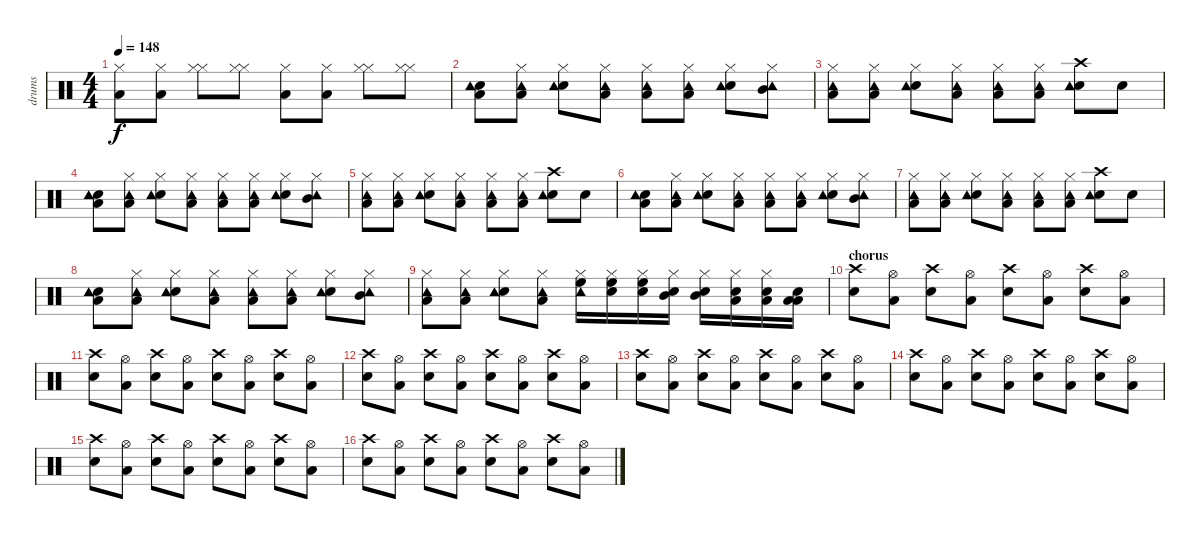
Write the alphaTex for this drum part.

\track ("drums" "drums") {instrument percussion}
\staff {score}
\articulation defaults
\ts (4 4)
\tempo 148
\clef neutral
\ks c
("Hi-Hat (closed)" "Low Tom (hit)").8{dy f} ("Hi-Hat (closed)" "Low Tom (hit)").8 ("Hi-Hat (closed)" "Hi-Hat (closed)").8 ("Hi-Hat (closed)" "Hi-Hat (closed)").8 ("Hi-Hat (closed)" "Low Tom (hit)").8 ("Hi-Hat (closed)" "Low Tom (hit)").8 ("Hi-Hat (closed)" "Hi-Hat (closed)").8 ("Hi-Hat (closed)" "Hi-Hat (closed)").8 |
("Snare (hit) 2" "Low Tom (hit)" "Tambourine (hit)").8 ("Hi-Hat (closed)" "Low Tom (hit)" "Tambourine (hit)").8 ("Snare (hit) 2" "Hi-Hat (closed)" "Tambourine (hit)").8 ("Hi-Hat (closed)" "Low Tom (hit)" "Tambourine (hit)").8 ("Hi-Hat (closed)" "Low Tom (hit)" "Tambourine (hit)").8 ("Hi-Hat (closed)" "Low Tom (hit)" "Tambourine (hit)").8 ("Snare (hit) 2" "Hi-Hat (closed)" "Tambourine (hit)").8 ("Mid Tom (hit)" "Hi-Hat (closed)" "Tambourine (hit)").8 |
("Hi-Hat (closed)" "Low Tom (hit)" "Tambourine (hit)").8 ("Hi-Hat (closed)" "Low Tom (hit)" "Tambourine (hit)").8 ("Snare (hit) 2" "Hi-Hat (closed)" "Tambourine (hit)").8 ("Hi-Hat (closed)" "Low Tom (hit)" "Tambourine (hit)").8 ("Hi-Hat (closed)" "Low Tom (hit)" "Tambourine (hit)").8 ("Hi-Hat (closed)" "Low Tom (hit)" "Tambourine (hit)").8 ("Crash high (hit)" "Snare (hit) 2" "Tambourine (hit)").8 "Snare (hit) 2".8 |
("Snare (hit) 2" "Low Tom (hit)" "Tambourine (hit)").8 ("Hi-Hat (closed)" "Low Tom (hit)" "Tambourine (hit)").8 ("Snare (hit) 2" "Hi-Hat (closed)" "Tambourine (hit)").8 ("Hi-Hat (closed)" "Low Tom (hit)" "Tambourine (hit)").8 ("Hi-Hat (closed)" "Low Tom (hit)" "Tambourine (hit)").8 ("Hi-Hat (closed)" "Low Tom (hit)" "Tambourine (hit)").8 ("Snare (hit) 2" "Hi-Hat (closed)" "Tambourine (hit)").8 ("Mid Tom (hit)" "Hi-Hat (closed)" "Tambourine (hit)").8 |
("Hi-Hat (closed)" "Low Tom (hit)" "Tambourine (hit)").8 ("Hi-Hat (closed)" "Low Tom (hit)" "Tambourine (hit)").8 ("Snare (hit) 2" "Hi-Hat (closed)" "Tambourine (hit)").8 ("Hi-Hat (closed)" "Low Tom (hit)" "Tambourine (hit)").8 ("Hi-Hat (closed)" "Low Tom (hit)" "Tambourine (hit)").8 ("Hi-Hat (closed)" "Low Tom (hit)" "Tambourine (hit)").8 ("Crash high (hit)" "Snare (hit) 2" "Tambourine (hit)").8 "Snare (hit) 2".8 |
("Snare (hit) 2" "Low Tom (hit)" "Tambourine (hit)").8 ("Hi-Hat (closed)" "Low Tom (hit)" "Tambourine (hit)").8 ("Snare (hit) 2" "Hi-Hat (closed)" "Tambourine (hit)").8 ("Hi-Hat (closed)" "Low Tom (hit)" "Tambourine (hit)").8 ("Hi-Hat (closed)" "Low Tom (hit)" "Tambourine (hit)").8 ("Hi-Hat (closed)" "Low Tom (hit)" "Tambourine (hit)").8 ("Snare (hit) 2" "Hi-Hat (closed)" "Tambourine (hit)").8 ("Mid Tom (hit)" "Hi-Hat (closed)" "Tambourine (hit)").8 |
("Hi-Hat (closed)" "Low Tom (hit)" "Tambourine (hit)").8 ("Hi-Hat (closed)" "Low Tom (hit)" "Tambourine (hit)").8 ("Snare (hit) 2" "Hi-Hat (closed)" "Tambourine (hit)").8 ("Hi-Hat (closed)" "Low Tom (hit)" "Tambourine (hit)").8 ("Hi-Hat (closed)" "Low Tom (hit)" "Tambourine (hit)").8 ("Hi-Hat (closed)" "Low Tom (hit)" "Tambourine (hit)").8 ("Crash high (hit)" "Snare (hit) 2" "Tambourine (hit)").8 "Snare (hit) 2".8 |
("Snare (hit) 2" "Low Tom (hit)" "Tambourine (hit)").8 ("Hi-Hat (closed)" "Low Tom (hit)" "Tambourine (hit)").8 ("Snare (hit) 2" "Hi-Hat (closed)" "Tambourine (hit)").8 ("Hi-Hat (closed)" "Low Tom (hit)" "Tambourine (hit)").8 ("Hi-Hat (closed)" "Low Tom (hit)" "Tambourine (hit)").8 ("Hi-Hat (closed)" "Low Tom (hit)" "Tambourine (hit)").8 ("Snare (hit) 2" "Hi-Hat (closed)" "Tambourine (hit)").8 ("Mid Tom (hit)" "Hi-Hat (closed)" "Tambourine (hit)").8 |
("Hi-Hat (closed)" "Low Tom (hit)" "Tambourine (hit)").8 ("Hi-Hat (closed)" "Low Tom (hit)" "Tambourine (hit)").8 ("Snare (hit) 2" "Hi-Hat (closed)" "Tambourine (hit)").8 ("Hi-Hat (closed)" "Low Tom (hit)" "Tambourine (hit)").8 ("Hi-Hat (closed)" "High Floor Tom (hit)" "Tambourine (hit)").16 ("Snare (hit) 2" "High Floor Tom (hit)" "Hi-Hat (closed)").16 ("Snare (hit) 2" "High Floor Tom (hit)" "Hi-Hat (closed)").16 ("Snare (hit) 2" "Mid Tom (hit)" "Hi-Hat (closed)").16 ("Snare (hit) 2" "Mid Tom (hit)" "Hi-Hat (closed)").16 ("Snare (hit) 2" "Low Tom (hit)" "Hi-Hat (closed)").16 ("Snare (hit) 2" "Low Tom (hit)" "Hi-Hat (closed)").16 ("Low Tom (hit)" "Low Floor Tom (hit)" "Snare (hit) 2").16 |
\section ("" "chorus")
("Crash high (hit)" "Snare (hit) 2").8 ("Hi-Hat (open)" "Low Tom (hit)").8 ("Crash high (hit)" "Snare (hit) 2").8 ("Hi-Hat (open)" "Low Tom (hit)").8 ("Crash high (hit)" "Snare (hit) 2").8 ("Hi-Hat (open)" "Low Tom (hit)").8 ("Crash high (hit)" "Snare (hit) 2").8 ("Hi-Hat (open)" "Low Tom (hit)").8 |
("Crash high (hit)" "Snare (hit) 2").8 ("Hi-Hat (open)" "Low Tom (hit)").8 ("Crash high (hit)" "Snare (hit) 2").8 ("Hi-Hat (open)" "Low Tom (hit)").8 ("Crash high (hit)" "Snare (hit) 2").8 ("Hi-Hat (open)" "Low Tom (hit)").8 ("Crash high (hit)" "Snare (hit) 2").8 ("Hi-Hat (open)" "Low Tom (hit)").8 |
("Crash high (hit)" "Snare (hit) 2").8 ("Hi-Hat (open)" "Low Tom (hit)").8 ("Crash high (hit)" "Snare (hit) 2").8 ("Hi-Hat (open)" "Low Tom (hit)").8 ("Crash high (hit)" "Snare (hit) 2").8 ("Hi-Hat (open)" "Low Tom (hit)").8 ("Crash high (hit)" "Snare (hit) 2").8 ("Hi-Hat (open)" "Low Tom (hit)").8 |
("Crash high (hit)" "Snare (hit) 2").8 ("Hi-Hat (open)" "Low Tom (hit)").8 ("Crash high (hit)" "Snare (hit) 2").8 ("Hi-Hat (open)" "Low Tom (hit)").8 ("Crash high (hit)" "Snare (hit) 2").8 ("Hi-Hat (open)" "Low Tom (hit)").8 ("Crash high (hit)" "Snare (hit) 2").8 ("Hi-Hat (open)" "Low Tom (hit)").8 |
("Crash high (hit)" "Snare (hit) 2").8 ("Hi-Hat (open)" "Low Tom (hit)").8 ("Crash high (hit)" "Snare (hit) 2").8 ("Hi-Hat (open)" "Low Tom (hit)").8 ("Crash high (hit)" "Snare (hit) 2").8 ("Hi-Hat (open)" "Low Tom (hit)").8 ("Crash high (hit)" "Snare (hit) 2").8 ("Hi-Hat (open)" "Low Tom (hit)").8 |
("Crash high (hit)" "Snare (hit) 2").8 ("Hi-Hat (open)" "Low Tom (hit)").8 ("Crash high (hit)" "Snare (hit) 2").8 ("Hi-Hat (open)" "Low Tom (hit)").8 ("Crash high (hit)" "Snare (hit) 2").8 ("Hi-Hat (open)" "Low Tom (hit)").8 ("Crash high (hit)" "Snare (hit) 2").8 ("Hi-Hat (open)" "Low Tom (hit)").8 |
("Crash high (hit)" "Snare (hit) 2").8 ("Hi-Hat (open)" "Low Tom (hit)").8 ("Crash high (hit)" "Snare (hit) 2").8 ("Hi-Hat (open)" "Low Tom (hit)").8 ("Crash high (hit)" "Snare (hit) 2").8 ("Hi-Hat (open)" "Low Tom (hit)").8 ("Crash high (hit)" "Snare (hit) 2").8 ("Hi-Hat (open)" "Low Tom (hit)").8
